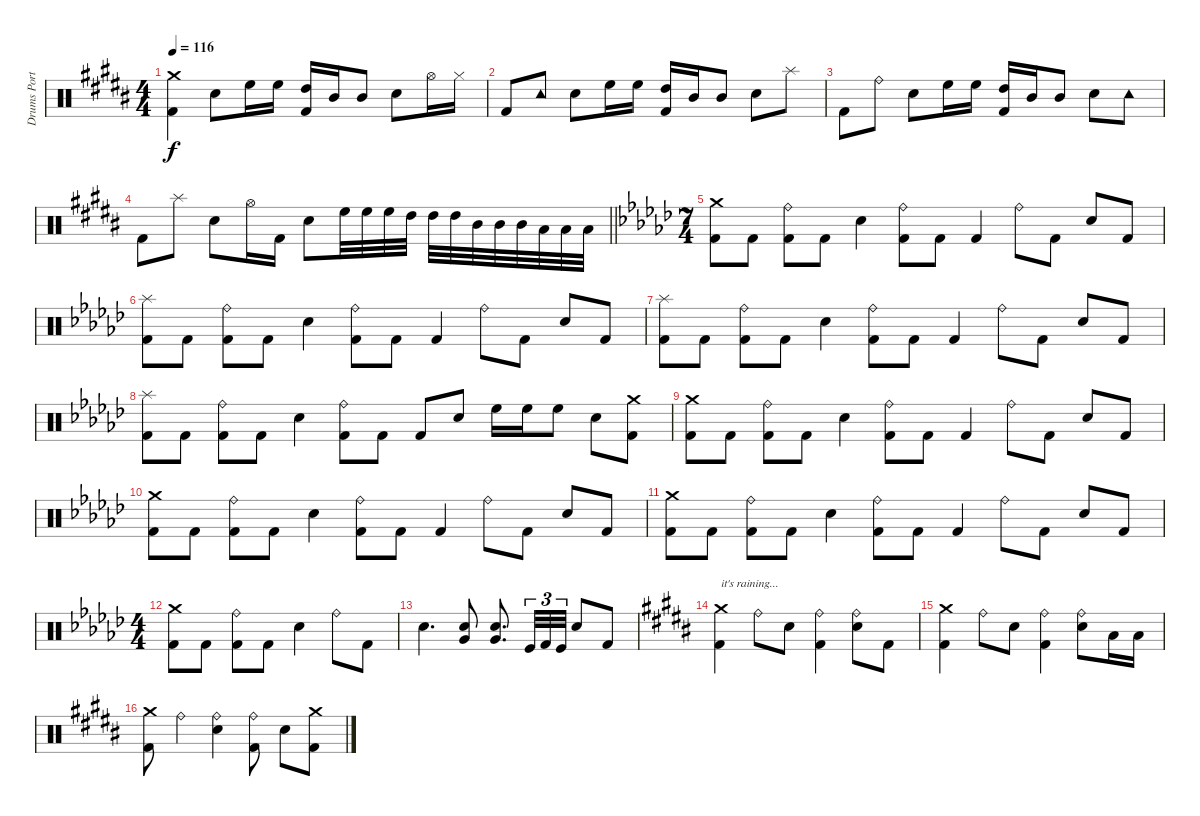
\track ("Drums Portnoy" "Drums Port") {instrument percussion}
\staff {score}
\articulation defaults
\ts (4 4)
\tempo 116
\clef neutral
\ks g#minor
("Crash medium (hit)" "Kick (hit) 2").4{dy f} "Snare (hit) 2".8 "High Floor Tom (hit)".16 "High Floor Tom (hit)".16 ("High Tom (hit)" "Kick (hit) 2").16 "Mid Tom (hit)".16 "Mid Tom (hit)".8 "Snare (hit) 2".8 "Hi-Hat (open)".16 "Hi-Hat (closed)".16 |
"Kick (hit) 2".8 "Tambourine (hit)".8 "Snare (hit) 2".8 "High Floor Tom (hit)".16 "High Floor Tom (hit)".16 ("High Tom (hit)" "Kick (hit) 2").16 "Mid Tom (hit)".16 "Mid Tom (hit)".8 "Snare (hit) 2".8 "Splash (hit)".8 |
"Kick (hit) 2".8 "Ride (bell)".8 "Snare (hit) 2".8 "High Floor Tom (hit)".16 "High Floor Tom (hit)".16 ("High Tom (hit)" "Kick (hit) 2").16 "Mid Tom (hit)".16 "Mid Tom (hit)".8 "Snare (hit) 2".8 "Tambourine (hit)".8 |
\barLineRight lightlight "Kick (hit) 2".8 "Splash (hit)".8 "Snare (hit) 2".8 "Hi-Hat (open)".16 "Kick (hit) 2".16 "Snare (hit) 2".8 "High Floor Tom (hit)".32 "High Floor Tom (hit)".32 "High Floor Tom (hit)".32 "High Tom (hit)".32 "High Tom (hit)".32 "High Tom (hit)".32 "Mid Tom (hit)".32 "Mid Tom (hit)".32 "Mid Tom (hit)".32 "Low Tom (hit)".32 "Low Tom (hit)".32 "Low Tom (hit)".32
|
\ts (7 4)
\ks gb
("Crash medium (hit)" "Kick (hit) 2").8 "Kick (hit) 2".8 ("Ride (bell)" "Kick (hit) 2").8 "Kick (hit) 2".8 "Snare (hit) 2".4 ("Ride (bell)" "Kick (hit) 2").8 "Kick (hit) 2".8 "Kick (hit) 2".4 "Ride (bell)".8 "Kick (hit) 2".8 "Snare (hit) 2".8 "Kick (hit) 2".8 |
("Splash (hit)" "Kick (hit) 2").8 "Kick (hit) 2".8 ("Ride (bell)" "Kick (hit) 2").8 "Kick (hit) 2".8 "Snare (hit) 2".4 ("Ride (bell)" "Kick (hit) 2").8 "Kick (hit) 2".8 "Kick (hit) 2".4 "Ride (bell)".8 "Kick (hit) 2".8 "Snare (hit) 2".8 "Kick (hit) 2".8 |
("Splash (hit)" "Kick (hit) 2").8 "Kick (hit) 2".8 ("Ride (bell)" "Kick (hit) 2").8 "Kick (hit) 2".8 "Snare (hit) 2".4 ("Ride (bell)" "Kick (hit) 2").8 "Kick (hit) 2".8 "Kick (hit) 2".4 "Ride (bell)".8 "Kick (hit) 2".8 "Snare (hit) 2".8 "Kick (hit) 2".8 |
("Splash (hit)" "Kick (hit) 2").8 "Kick (hit) 2".8 ("Ride (bell)" "Kick (hit) 2").8 "Kick (hit) 2".8 "Snare (hit) 2".4 ("Ride (bell)" "Kick (hit) 2").8 "Kick (hit) 2".8 "Kick (hit) 2".8 "Snare (hit) 2".8 "High Floor Tom (hit)".16 "High Floor Tom (hit)".16 "High Floor Tom (hit)".8 "Snare (hit) 2".8 ("Crash medium (hit)" "Kick (hit) 2").8 |
("Crash medium (hit)" "Kick (hit) 2").8 "Kick (hit) 2".8 ("Ride (bell)" "Kick (hit) 2").8 "Kick (hit) 2".8 "Snare (hit) 2".4 ("Ride (bell)" "Kick (hit) 2").8 "Kick (hit) 2".8 "Kick (hit) 2".4 "Ride (bell)".8 "Kick (hit) 2".8 "Snare (hit) 2".8 "Kick (hit) 2".8 |
("Crash medium (hit)" "Kick (hit) 2").8 "Kick (hit) 2".8 ("Ride (bell)" "Kick (hit) 2").8 "Kick (hit) 2".8 "Snare (hit) 2".4 ("Ride (bell)" "Kick (hit) 2").8 "Kick (hit) 2".8 "Kick (hit) 2".4 "Ride (bell)".8 "Kick (hit) 2".8 "Snare (hit) 2".8 "Kick (hit) 2".8 |
("Crash medium (hit)" "Kick (hit) 2").8 "Kick (hit) 2".8 ("Ride (bell)" "Kick (hit) 2").8 "Kick (hit) 2".8 "Snare (hit) 2".4 ("Ride (bell)" "Kick (hit) 2").8 "Kick (hit) 2".8 "Kick (hit) 2".4 "Ride (bell)".8 "Kick (hit) 2".8 "Snare (hit) 2".8 "Kick (hit) 2".8 |
\ts (4 4)
("Crash medium (hit)" "Kick (hit) 2").8 "Kick (hit) 2".8 ("Ride (bell)" "Kick (hit) 2").8 "Kick (hit) 2".8 "Snare (hit) 2".4 "Ride (bell)".8 "Kick (hit) 2".8 |
"Snare (hit) 2".4{d} ("Snare (hit) 2" "Very Low Tom (hit)").8 ("Snare (hit) 2" "Very Low Tom (hit)").8{d} "Kick (hit)".32{tu (3 2)} "Kick (hit) 2".32{tu (3 2)} "Kick (hit)".32{tu (3 2)} "Snare (hit) 2".8 "Kick (hit) 2".8 |
\ks b
("Crash medium (hit)" "Kick (hit) 2").4{txt "it's raining..."} "Ride (bell)".8 "Snare (hit) 2".8 ("Ride (bell)" "Kick (hit) 2").4 ("Ride (bell)" "Snare (hit) 2").8 "Kick (hit) 2".8 |
\ks g#minor
("Crash medium (hit)" "Kick (hit) 2").4 "Ride (bell)".8 "Snare (hit) 2".8 ("Ride (bell)" "Kick (hit) 2").4 ("Ride (bell)" "Snare (hit) 2").8 "Low Tom (hit)".16 "Low Tom (hit)".16 |
("Crash medium (hit)" "Kick (hit) 2").8 "Ride (bell)".4 ("Ride (bell)" "Snare (hit) 2").4 ("Ride (bell)" "Kick (hit) 2").8 "Snare (hit) 2".8 ("Crash medium (hit)" "Kick (hit) 2").8
